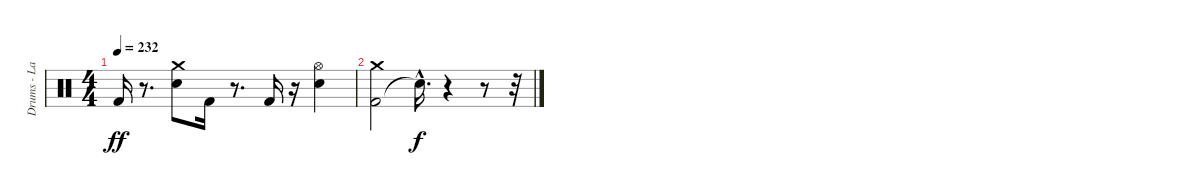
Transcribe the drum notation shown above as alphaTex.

\track ("Drums - Larzon" "Drums - La") {instrument percussion}
\staff {score}
\articulation defaults
\ts (4 4)
\tempo 232
\clef neutral
\ks c "Kick (hit) 2".16{dy ff}
r.8{d} ("Electric Snare (hit)" "Crash medium (hit)").8 "Kick (hit) 2".16 r.8{d} "Kick (hit) 2".16 r.16 ("Electric Snare (hit)" "Hi-Hat (open)").4 |
("Kick (hit) 2" "Crash medium (hit)").2 "Snare (hit)"{hac t}.16{d dy f} r.4 r.8 r.32
